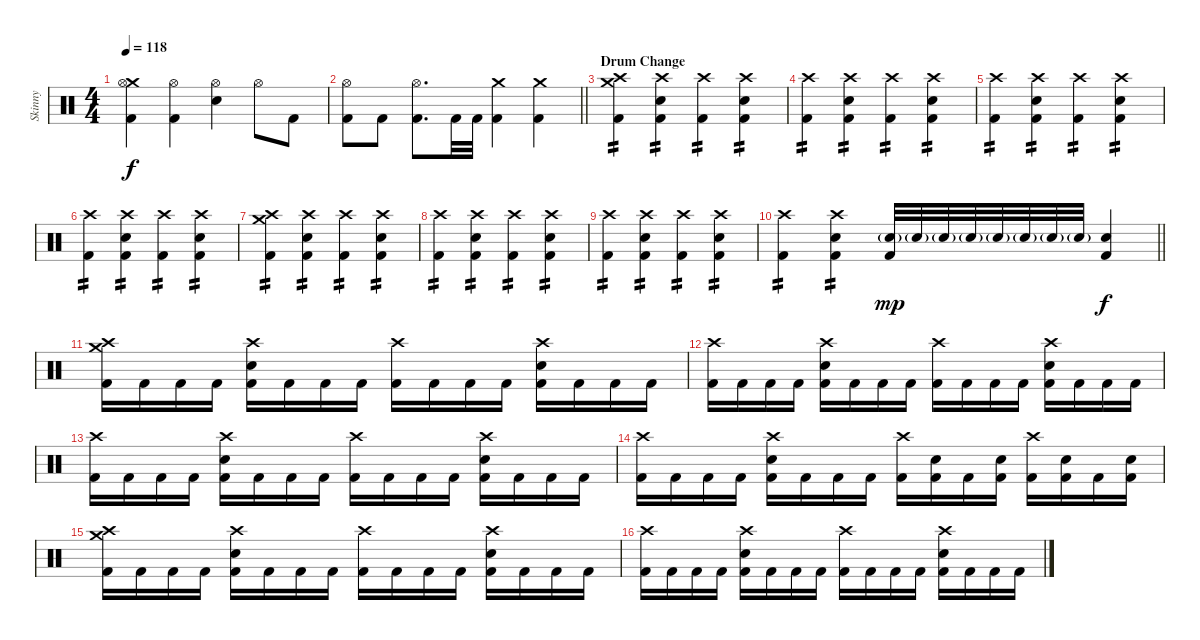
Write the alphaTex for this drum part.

\track ("Skinny" "Skinny") {instrument percussion}
\staff {score}
\articulation defaults
\ts (4 4)
\tempo 118
\clef neutral
\ks c
("Crash medium (hit)" "Hi-Hat (open)" "Kick (hit) 2").4{dy f} ("Hi-Hat (open)" "Kick (hit) 2").4 ("Hi-Hat (open)" "Electric Snare (hit)").4 "Hi-Hat (open)".8 "Kick (hit) 2".8 |
\barLineRight lightlight
("Hi-Hat (open)" "Kick (hit) 2").8 "Kick (hit) 2".8 ("Hi-Hat (open)" "Kick (hit) 2").8{d} "Kick (hit) 2".32 "Kick (hit) 2".32 ("Crash medium (hit)" "Kick (hit) 2").4 ("Crash medium (hit)" "Kick (hit) 2").4 |
\section ("" "Drum Change")
("Crash high (hit)" "Crash medium (hit)" "Kick (hit) 2").4{tp 2} ("Crash high (hit)" "Electric Snare (hit)" "Kick (hit) 2").4{tp 2} ("Crash high (hit)" "Kick (hit) 2").4{tp 2} ("Crash high (hit)" "Electric Snare (hit)" "Kick (hit) 2").4{tp 2} |
("Crash high (hit)" "Kick (hit) 2").4{tp 2} ("Crash high (hit)" "Electric Snare (hit)" "Kick (hit) 2").4{tp 2} ("Crash high (hit)" "Kick (hit) 2").4{tp 2} ("Crash high (hit)" "Electric Snare (hit)" "Kick (hit) 2").4{tp 2} |
("Crash high (hit)" "Kick (hit) 2").4{tp 2} ("Crash high (hit)" "Electric Snare (hit)" "Kick (hit) 2").4{tp 2} ("Crash high (hit)" "Kick (hit) 2").4{tp 2} ("Crash high (hit)" "Electric Snare (hit)" "Kick (hit) 2").4{tp 2} |
("Crash high (hit)" "Kick (hit) 2").4{tp 2} ("Crash high (hit)" "Electric Snare (hit)" "Kick (hit) 2").4{tp 2} ("Crash high (hit)" "Kick (hit) 2").4{tp 2} ("Crash high (hit)" "Electric Snare (hit)" "Kick (hit) 2").4{tp 2} |
("Crash high (hit)" "Crash medium (hit)" "Kick (hit) 2").4{tp 2} ("Crash high (hit)" "Electric Snare (hit)" "Kick (hit) 2").4{tp 2} ("Crash high (hit)" "Kick (hit) 2").4{tp 2} ("Crash high (hit)" "Electric Snare (hit)" "Kick (hit) 2").4{tp 2} |
("Crash high (hit)" "Kick (hit) 2").4{tp 2} ("Crash high (hit)" "Electric Snare (hit)" "Kick (hit) 2").4{tp 2} ("Crash high (hit)" "Kick (hit) 2").4{tp 2} ("Crash high (hit)" "Electric Snare (hit)" "Kick (hit) 2").4{tp 2} |
("Crash high (hit)" "Kick (hit) 2").4{tp 2} ("Crash high (hit)" "Electric Snare (hit)" "Kick (hit) 2").4{tp 2} ("Crash high (hit)" "Kick (hit) 2").4{tp 2} ("Crash high (hit)" "Electric Snare (hit)" "Kick (hit) 2").4{tp 2} |
\barLineRight lightlight
("Crash high (hit)" "Kick (hit) 2").4{tp 2} ("Crash high (hit)" "Electric Snare (hit)" "Kick (hit) 2").4{tp 2} ("Electric Snare (hit)"{g} "Kick (hit) 2").32{dy mp} "Electric Snare (hit)"{g}.32 "Electric Snare (hit)"{g}.32 "Electric Snare (hit)"{g}.32 "Electric Snare (hit)"{g}.32 "Electric Snare (hit)"{g}.32 "Electric Snare (hit)"{g}.32 "Electric Snare (hit)"{g}.32 ("Electric Snare (hit)" "Kick (hit) 2").4{dy f} |
("Crash medium (hit)" "Crash high (hit)" "Kick (hit) 2").16 "Kick (hit) 2".16 "Kick (hit) 2".16 "Kick (hit) 2".16 ("Crash high (hit)" "Electric Snare (hit)" "Kick (hit) 2").16 "Kick (hit) 2".16 "Kick (hit) 2".16 "Kick (hit) 2".16 ("Crash high (hit)" "Kick (hit) 2").16 "Kick (hit) 2".16 "Kick (hit) 2".16 "Kick (hit) 2".16 ("Crash high (hit)" "Electric Snare (hit)" "Kick (hit) 2").16 "Kick (hit) 2".16 "Kick (hit) 2".16 "Kick (hit) 2".16 |
("Crash high (hit)" "Kick (hit) 2").16 "Kick (hit) 2".16 "Kick (hit) 2".16 "Kick (hit) 2".16 ("Crash high (hit)" "Electric Snare (hit)" "Kick (hit) 2").16 "Kick (hit) 2".16 "Kick (hit) 2".16 "Kick (hit) 2".16 ("Crash high (hit)" "Kick (hit) 2").16 "Kick (hit) 2".16 "Kick (hit) 2".16 "Kick (hit) 2".16 ("Crash high (hit)" "Electric Snare (hit)" "Kick (hit) 2").16 "Kick (hit) 2".16 "Kick (hit) 2".16 "Kick (hit) 2".16 |
("Crash high (hit)" "Kick (hit) 2").16 "Kick (hit) 2".16 "Kick (hit) 2".16 "Kick (hit) 2".16 ("Crash high (hit)" "Electric Snare (hit)" "Kick (hit) 2").16 "Kick (hit) 2".16 "Kick (hit) 2".16 "Kick (hit) 2".16 ("Crash high (hit)" "Kick (hit) 2").16 "Kick (hit) 2".16 "Kick (hit) 2".16 "Kick (hit) 2".16 ("Crash high (hit)" "Electric Snare (hit)" "Kick (hit) 2").16 "Kick (hit) 2".16 "Kick (hit) 2".16 "Kick (hit) 2".16 |
("Crash high (hit)" "Kick (hit) 2").16 "Kick (hit) 2".16 "Kick (hit) 2".16 "Kick (hit) 2".16 ("Crash high (hit)" "Electric Snare (hit)" "Kick (hit) 2").16 "Kick (hit) 2".16 "Kick (hit) 2".16 "Kick (hit) 2".16 ("Crash high (hit)" "Kick (hit) 2").16 ("Electric Snare (hit)" "Kick (hit) 2").16 "Kick (hit) 2".16 ("Electric Snare (hit)" "Kick (hit) 2").16 ("Crash high (hit)" "Kick (hit) 2").16 ("Electric Snare (hit)" "Kick (hit) 2").16 "Kick (hit) 2".16 ("Electric Snare (hit)" "Kick (hit) 2").16 |
("Crash medium (hit)" "Crash high (hit)" "Kick (hit) 2").16 "Kick (hit) 2".16 "Kick (hit) 2".16 "Kick (hit) 2".16 ("Crash high (hit)" "Electric Snare (hit)" "Kick (hit) 2").16 "Kick (hit) 2".16 "Kick (hit) 2".16 "Kick (hit) 2".16 ("Crash high (hit)" "Kick (hit) 2").16 "Kick (hit) 2".16 "Kick (hit) 2".16 "Kick (hit) 2".16 ("Crash high (hit)" "Electric Snare (hit)" "Kick (hit) 2").16 "Kick (hit) 2".16 "Kick (hit) 2".16 "Kick (hit) 2".16 |
("Crash high (hit)" "Kick (hit) 2").16 "Kick (hit) 2".16 "Kick (hit) 2".16 "Kick (hit) 2".16 ("Crash high (hit)" "Electric Snare (hit)" "Kick (hit) 2").16 "Kick (hit) 2".16 "Kick (hit) 2".16 "Kick (hit) 2".16 ("Crash high (hit)" "Kick (hit) 2").16 "Kick (hit) 2".16 "Kick (hit) 2".16 "Kick (hit) 2".16 ("Crash high (hit)" "Electric Snare (hit)" "Kick (hit) 2").16 "Kick (hit) 2".16 "Kick (hit) 2".16 "Kick (hit) 2".16
